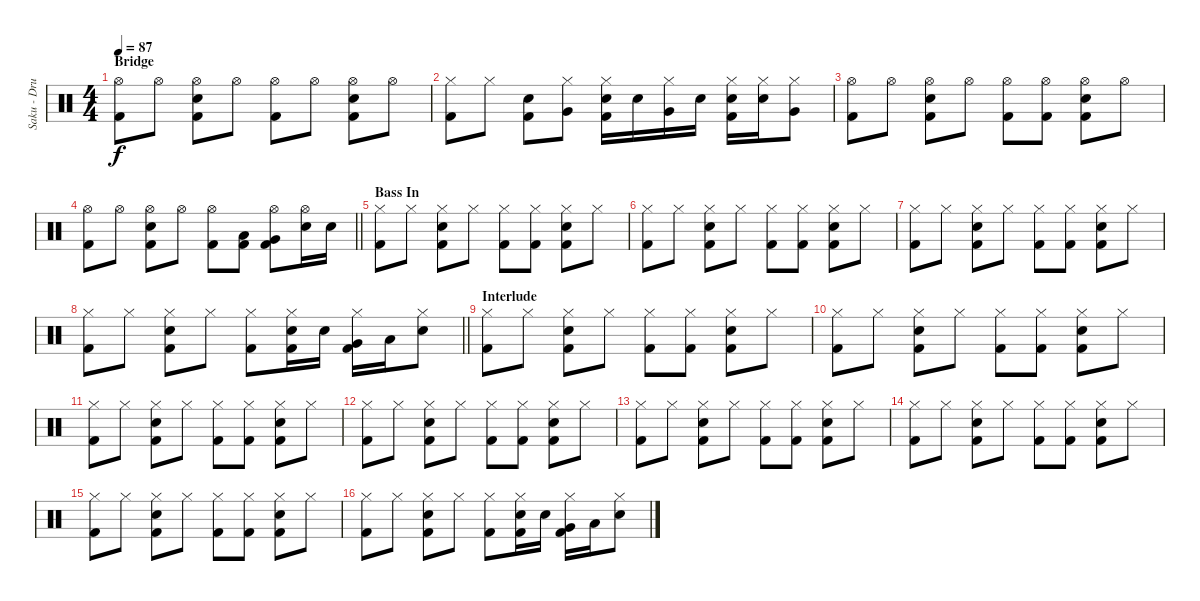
\track ("Saku - Drums" "Saku - Dru") {instrument percussion}
\staff {score}
\articulation defaults
\ts (4 4)
\section ("" "Bridge")
\tempo 87
\clef neutral
\ks c
("Kick (hit) 2" "Hi-Hat (open)").8{dy f} "Hi-Hat (open)".8 ("Kick (hit) 2" "Snare (hit) 2" "Hi-Hat (open)").8 "Hi-Hat (open)".8 ("Kick (hit) 2" "Hi-Hat (open)").8 "Hi-Hat (open)".8 ("Kick (hit) 2" "Snare (hit) 2" "Hi-Hat (open)").8 "Hi-Hat (open)".8 |
("Kick (hit) 2" "Hi-Hat (closed)").8 "Hi-Hat (closed)".8 ("Kick (hit) 2" "Snare (hit) 2").8 ("Very Low Tom (hit)" "Hi-Hat (closed)").8 ("Kick (hit) 2" "Snare (hit) 2" "Hi-Hat (closed)").16 "Snare (hit) 2".16 ("Very Low Tom (hit)" "Hi-Hat (closed)").16 "Snare (hit) 2".16 ("Kick (hit) 2" "Snare (hit) 2" "Hi-Hat (closed)").16 ("Snare (hit) 2" "Hi-Hat (closed)").16 ("Very Low Tom (hit)" "Hi-Hat (closed)").8 |
("Kick (hit) 2" "Hi-Hat (open)").8 "Hi-Hat (open)".8 ("Kick (hit) 2" "Snare (hit) 2" "Hi-Hat (open)").8 "Hi-Hat (open)".8 ("Kick (hit) 2" "Hi-Hat (open)").8 ("Kick (hit) 2" "Hi-Hat (open)").8 ("Kick (hit) 2" "Snare (hit) 2" "Hi-Hat (open)").8 "Hi-Hat (open)".8 |
\barLineRight lightlight
("Kick (hit) 2" "Hi-Hat (open)").8 "Hi-Hat (open)".8 ("Kick (hit) 2" "Snare (hit) 2" "Hi-Hat (open)").8 "Hi-Hat (open)".8 ("Kick (hit) 2" "Hi-Hat (open)").8 ("Kick (hit) 2" "Low Tom (hit)").8 ("Kick (hit) 2" "Very Low Tom (hit)" "Hi-Hat (open)").8 ("Snare (hit) 2" "Hi-Hat (open)").16 "Snare (hit) 2".16 |
\section ("" "Bass In")
("Kick (hit) 2" "Hi-Hat (closed)").8 "Hi-Hat (closed)".8 ("Kick (hit) 2" "Snare (hit) 2" "Hi-Hat (closed)").8 "Hi-Hat (closed)".8 ("Kick (hit) 2" "Hi-Hat (closed)").8 ("Kick (hit) 2" "Hi-Hat (closed)").8 ("Kick (hit) 2" "Snare (hit) 2" "Hi-Hat (closed)").8 "Hi-Hat (closed)".8 |
("Kick (hit) 2" "Hi-Hat (closed)").8 "Hi-Hat (closed)".8 ("Kick (hit) 2" "Snare (hit) 2" "Hi-Hat (closed)").8 "Hi-Hat (closed)".8 ("Kick (hit) 2" "Hi-Hat (closed)").8 ("Kick (hit) 2" "Hi-Hat (closed)").8 ("Kick (hit) 2" "Snare (hit) 2" "Hi-Hat (closed)").8 "Hi-Hat (closed)".8 |
("Kick (hit) 2" "Hi-Hat (closed)").8 "Hi-Hat (closed)".8 ("Kick (hit) 2" "Snare (hit) 2" "Hi-Hat (closed)").8 "Hi-Hat (closed)".8 ("Kick (hit) 2" "Hi-Hat (closed)").8 ("Kick (hit) 2" "Hi-Hat (closed)").8 ("Kick (hit) 2" "Snare (hit) 2" "Hi-Hat (closed)").8 "Hi-Hat (closed)".8 |
\barLineRight lightlight
("Kick (hit) 2" "Hi-Hat (closed)").8 "Hi-Hat (closed)".8 ("Kick (hit) 2" "Snare (hit) 2" "Hi-Hat (closed)").8 "Hi-Hat (closed)".8 ("Kick (hit) 2" "Hi-Hat (closed)").8 ("Kick (hit) 2" "Snare (hit) 2" "Hi-Hat (closed)").16 "Snare (hit) 2".16 ("Kick (hit) 2" "Very Low Tom (hit)" "Hi-Hat (closed)").16 "Low Tom (hit)".16 ("Snare (hit) 2" "Hi-Hat (closed)").8 |
\section ("" "Interlude")
("Kick (hit) 2" "Hi-Hat (closed)").8 "Hi-Hat (closed)".8 ("Kick (hit) 2" "Snare (hit) 2" "Hi-Hat (closed)").8 "Hi-Hat (closed)".8 ("Kick (hit) 2" "Hi-Hat (closed)").8 ("Kick (hit) 2" "Hi-Hat (closed)").8 ("Kick (hit) 2" "Snare (hit) 2" "Hi-Hat (closed)").8 "Hi-Hat (closed)".8 |
("Kick (hit) 2" "Hi-Hat (closed)").8 "Hi-Hat (closed)".8 ("Kick (hit) 2" "Snare (hit) 2" "Hi-Hat (closed)").8 "Hi-Hat (closed)".8 ("Kick (hit) 2" "Hi-Hat (closed)").8 ("Kick (hit) 2" "Hi-Hat (closed)").8 ("Kick (hit) 2" "Snare (hit) 2" "Hi-Hat (closed)").8 "Hi-Hat (closed)".8 |
("Kick (hit) 2" "Hi-Hat (closed)").8 "Hi-Hat (closed)".8 ("Kick (hit) 2" "Snare (hit) 2" "Hi-Hat (closed)").8 "Hi-Hat (closed)".8 ("Kick (hit) 2" "Hi-Hat (closed)").8 ("Kick (hit) 2" "Hi-Hat (closed)").8 ("Kick (hit) 2" "Snare (hit) 2" "Hi-Hat (closed)").8 "Hi-Hat (closed)".8 |
("Kick (hit) 2" "Hi-Hat (closed)").8 "Hi-Hat (closed)".8 ("Kick (hit) 2" "Snare (hit) 2" "Hi-Hat (closed)").8 "Hi-Hat (closed)".8 ("Kick (hit) 2" "Hi-Hat (closed)").8 ("Kick (hit) 2" "Hi-Hat (closed)").8 ("Kick (hit) 2" "Snare (hit) 2" "Hi-Hat (closed)").8 "Hi-Hat (closed)".8 |
("Kick (hit) 2" "Hi-Hat (closed)").8 "Hi-Hat (closed)".8 ("Kick (hit) 2" "Snare (hit) 2" "Hi-Hat (closed)").8 "Hi-Hat (closed)".8 ("Kick (hit) 2" "Hi-Hat (closed)").8 ("Kick (hit) 2" "Hi-Hat (closed)").8 ("Kick (hit) 2" "Snare (hit) 2" "Hi-Hat (closed)").8 "Hi-Hat (closed)".8 |
("Kick (hit) 2" "Hi-Hat (closed)").8 "Hi-Hat (closed)".8 ("Kick (hit) 2" "Snare (hit) 2" "Hi-Hat (closed)").8 "Hi-Hat (closed)".8 ("Kick (hit) 2" "Hi-Hat (closed)").8 ("Kick (hit) 2" "Hi-Hat (closed)").8 ("Kick (hit) 2" "Snare (hit) 2" "Hi-Hat (closed)").8 "Hi-Hat (closed)".8 |
("Kick (hit) 2" "Hi-Hat (closed)").8 "Hi-Hat (closed)".8 ("Kick (hit) 2" "Snare (hit) 2" "Hi-Hat (closed)").8 "Hi-Hat (closed)".8 ("Kick (hit) 2" "Hi-Hat (closed)").8 ("Kick (hit) 2" "Hi-Hat (closed)").8 ("Kick (hit) 2" "Snare (hit) 2" "Hi-Hat (closed)").8 "Hi-Hat (closed)".8 |
("Kick (hit) 2" "Hi-Hat (closed)").8 "Hi-Hat (closed)".8 ("Kick (hit) 2" "Snare (hit) 2" "Hi-Hat (closed)").8 "Hi-Hat (closed)".8 ("Kick (hit) 2" "Hi-Hat (closed)").8 ("Kick (hit) 2" "Snare (hit) 2" "Hi-Hat (closed)").16 "Snare (hit) 2".16 ("Kick (hit) 2" "Very Low Tom (hit)" "Hi-Hat (closed)").16 "Low Tom (hit)".16 ("Snare (hit) 2" "Hi-Hat (closed)").8
